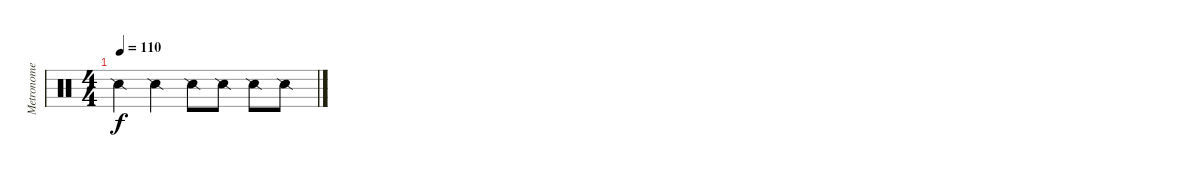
\track ("Metronome" "Metronome") {instrument percussion}
\staff {score}
\articulation defaults
\ts (4 4)
\tempo 110
\clef neutral
\ks c "Snare (side stick) 2".4{dy f} "Snare (side stick) 2".4 "Snare (side stick) 2".8 "Snare (side stick) 2".8 "Snare (side stick) 2".8 "Snare (side stick) 2".8
